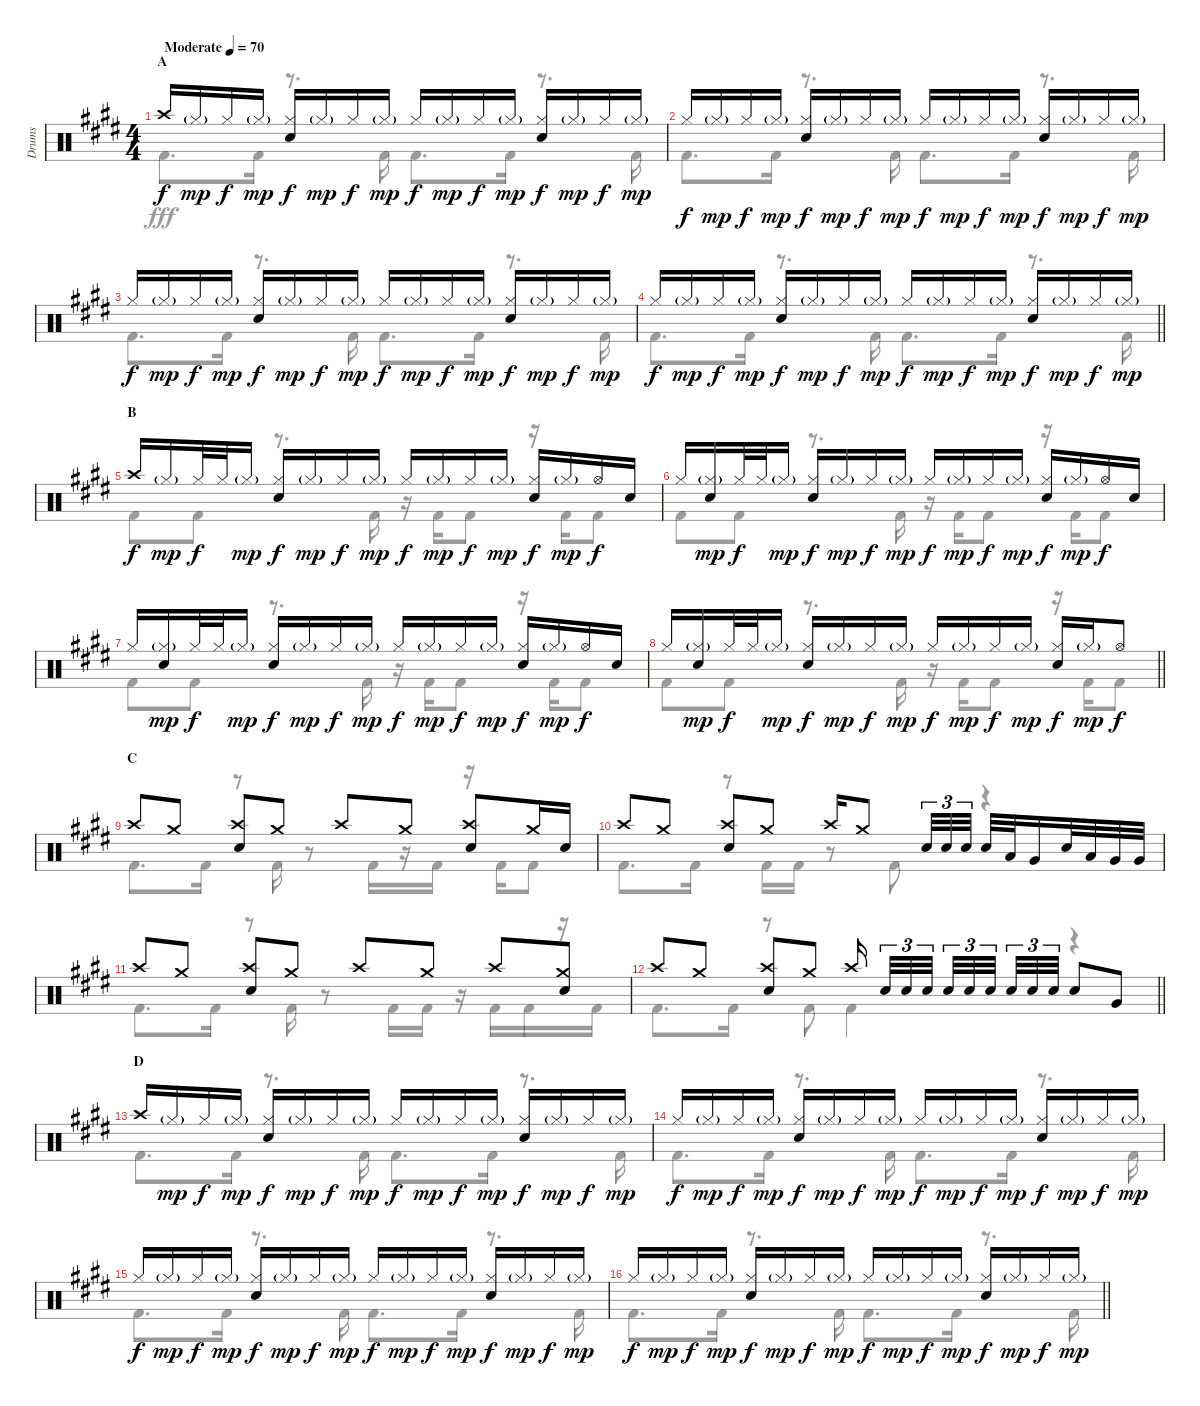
\track ("Drums" "Drums") {instrument percussion}
\staff {score}
\articulation defaults
\voice
\ts (4 4)
\section ("" "A")
\tempo (70 "Moderate")
\clef neutral
\ks e "Crash high (hit)".16{dy f} "Hi-Hat (closed)"{g}.16{dy mp} "Hi-Hat (closed)".16{dy f} "Hi-Hat (closed)"{g}.16{dy mp}
("Hi-Hat (closed)" "Snare (hit) 2").16{dy f} "Hi-Hat (closed)"{g}.16{dy mp} "Hi-Hat (closed)".16{dy f} "Hi-Hat (closed)"{g}.16{dy mp} "Hi-Hat (closed)".16{dy f} "Hi-Hat (closed)"{g}.16{dy mp} "Hi-Hat (closed)".16{dy f} "Hi-Hat (closed)"{g}.16{dy mp} ("Hi-Hat (closed)" "Snare (hit) 2").16{dy f} "Hi-Hat (closed)"{g}.16{dy mp} "Hi-Hat (closed)".16{dy f} "Hi-Hat (closed)"{g}.16{dy mp} |
"Hi-Hat (closed)".16{dy f} "Hi-Hat (closed)"{g}.16{dy mp} "Hi-Hat (closed)".16{dy f} "Hi-Hat (closed)"{g}.16{dy mp} ("Hi-Hat (closed)" "Snare (hit) 2").16{dy f} "Hi-Hat (closed)"{g}.16{dy mp} "Hi-Hat (closed)".16{dy f} "Hi-Hat (closed)"{g}.16{dy mp} "Hi-Hat (closed)".16{dy f} "Hi-Hat (closed)"{g}.16{dy mp} "Hi-Hat (closed)".16{dy f} "Hi-Hat (closed)"{g}.16{dy mp} ("Hi-Hat (closed)" "Snare (hit) 2").16{dy f} "Hi-Hat (closed)"{g}.16{dy mp} "Hi-Hat (closed)".16{dy f} "Hi-Hat (closed)"{g}.16{dy mp} |
"Hi-Hat (closed)".16{dy f} "Hi-Hat (closed)"{g}.16{dy mp} "Hi-Hat (closed)".16{dy f} "Hi-Hat (closed)"{g}.16{dy mp} ("Hi-Hat (closed)" "Snare (hit) 2").16{dy f} "Hi-Hat (closed)"{g}.16{dy mp} "Hi-Hat (closed)".16{dy f} "Hi-Hat (closed)"{g}.16{dy mp} "Hi-Hat (closed)".16{dy f} "Hi-Hat (closed)"{g}.16{dy mp} "Hi-Hat (closed)".16{dy f} "Hi-Hat (closed)"{g}.16{dy mp} ("Hi-Hat (closed)" "Snare (hit) 2").16{dy f} "Hi-Hat (closed)"{g}.16{dy mp} "Hi-Hat (closed)".16{dy f} "Hi-Hat (closed)"{g}.16{dy mp} |
\barLineRight lightlight "Hi-Hat (closed)".16{dy f} "Hi-Hat (closed)"{g}.16{dy mp} "Hi-Hat (closed)".16{dy f} "Hi-Hat (closed)"{g}.16{dy mp}
("Hi-Hat (closed)" "Snare (hit) 2").16{dy f} "Hi-Hat (closed)"{g}.16{dy mp} "Hi-Hat (closed)".16{dy f} "Hi-Hat (closed)"{g}.16{dy mp} "Hi-Hat (closed)".16{dy f} "Hi-Hat (closed)"{g}.16{dy mp} "Hi-Hat (closed)".16{dy f} "Hi-Hat (closed)"{g}.16{dy mp} ("Hi-Hat (closed)" "Snare (hit) 2").16{dy f} "Hi-Hat (closed)"{g}.16{dy mp} "Hi-Hat (closed)".16{dy f} "Hi-Hat (closed)"{g}.16{dy mp} |
\section ("" "B")
"Crash high (hit)".16{dy f} "Hi-Hat (closed)"{g}.16{dy mp} "Hi-Hat (closed)".32{dy f} "Hi-Hat (closed)".32 "Hi-Hat (closed)"{g}.16{dy mp} ("Hi-Hat (closed)" "Snare (hit) 2").16{dy f} "Hi-Hat (closed)"{g}.16{dy mp} "Hi-Hat (closed)".16{dy f} "Hi-Hat (closed)"{g}.16{dy mp} "Hi-Hat (closed)".16{dy f} "Hi-Hat (closed)"{g}.16{dy mp} "Hi-Hat (closed)".16{dy f} "Hi-Hat (closed)"{g}.16{dy mp} ("Hi-Hat (closed)" "Snare (hit) 2").16{dy f} "Hi-Hat (closed)"{g}.16{dy mp} "Hi-Hat (open)".16{dy f} "Snare (hit) 2".16 |
"Hi-Hat (closed)".16 ("Hi-Hat (closed)"{g} "Snare (hit) 2").16{dy mp} "Hi-Hat (closed)".32{dy f} "Hi-Hat (closed)".32 "Hi-Hat (closed)"{g}.16{dy mp} ("Hi-Hat (closed)" "Snare (hit) 2").16{dy f} "Hi-Hat (closed)"{g}.16{dy mp} "Hi-Hat (closed)".16{dy f} "Hi-Hat (closed)"{g}.16{dy mp} "Hi-Hat (closed)".16{dy f} "Hi-Hat (closed)"{g}.16{dy mp} "Hi-Hat (closed)".16{dy f} "Hi-Hat (closed)"{g}.16{dy mp} ("Hi-Hat (closed)" "Snare (hit) 2").16{dy f} "Hi-Hat (closed)"{g}.16{dy mp} "Hi-Hat (open)".16{dy f} "Snare (hit) 2".16 |
"Hi-Hat (closed)".16 ("Hi-Hat (closed)"{g} "Snare (hit) 2").16{dy mp} "Hi-Hat (closed)".32{dy f} "Hi-Hat (closed)".32 "Hi-Hat (closed)"{g}.16{dy mp} ("Hi-Hat (closed)" "Snare (hit) 2").16{dy f} "Hi-Hat (closed)"{g}.16{dy mp} "Hi-Hat (closed)".16{dy f} "Hi-Hat (closed)"{g}.16{dy mp} "Hi-Hat (closed)".16{dy f} "Hi-Hat (closed)"{g}.16{dy mp} "Hi-Hat (closed)".16{dy f} "Hi-Hat (closed)"{g}.16{dy mp} ("Hi-Hat (closed)" "Snare (hit) 2").16{dy f} "Hi-Hat (closed)"{g}.16{dy mp} "Hi-Hat (open)".16{dy f} "Snare (hit) 2".16 |
\barLineRight lightlight "Hi-Hat (closed)".16
("Hi-Hat (closed)"{g} "Snare (hit) 2").16{dy mp} "Hi-Hat (closed)".32{dy f} "Hi-Hat (closed)".32 "Hi-Hat (closed)"{g}.16{dy mp} ("Hi-Hat (closed)" "Snare (hit) 2").16{dy f} "Hi-Hat (closed)"{g}.16{dy mp} "Hi-Hat (closed)".16{dy f} "Hi-Hat (closed)"{g}.16{dy mp} "Hi-Hat (closed)".16{dy f} "Hi-Hat (closed)"{g}.16{dy mp} "Hi-Hat (closed)".16{dy f} "Hi-Hat (closed)"{g}.16{dy mp} ("Hi-Hat (closed)" "Snare (hit) 2").16{dy f} "Hi-Hat (closed)"{g}.16{dy mp} "Hi-Hat (open)".8{dy f} |
\section ("" "C")
"Crash high (hit)".8 "Crash medium (hit)".8 ("Crash high (hit)" "Snare (hit) 2").8 "Crash medium (hit)".8 "Crash high (hit)".8 "Crash medium (hit)".8 ("Crash high (hit)" "Snare (hit) 2").8 "Crash medium (hit)".16 "Snare (hit) 2".16 |
"Crash high (hit)".8 "Crash medium (hit)".8 ("Crash high (hit)" "Snare (hit) 2").8 "Crash medium (hit)".8 "Crash high (hit)".16 "Crash medium (hit)".8 "Snare (hit) 2".32{tu (3 2)} "Snare (hit) 2".32{tu (3 2)} "Snare (hit) 2".32{tu (3 2)} "Snare (hit) 2".32 "Low Tom (hit)".32 "Very Low Tom (hit)".16 "Snare (hit) 2".32 "Low Tom (hit)".32 "Very Low Tom (hit)".32 "Very Low Tom (hit)".32 |
"Crash high (hit)".8 "Crash medium (hit)".8 ("Crash high (hit)" "Snare (hit) 2").8 "Crash medium (hit)".8 "Crash high (hit)".8 "Crash medium (hit)".8 "Crash high (hit)".8 ("Crash medium (hit)" "Snare (hit) 2").8 |
\barLineRight lightlight "Crash high (hit)".8 "Crash medium (hit)".8
("Crash high (hit)" "Snare (hit) 2").8 "Crash medium (hit)".8 "Crash high (hit)".16{beam splitsecondary} "Snare (hit) 2".32{tu (3 2)} "Snare (hit) 2".32{tu (3 2)} "Snare (hit) 2".32{tu (3 2) beam splitsecondary} "Snare (hit) 2".32{tu (3 2)} "Snare (hit) 2".32{tu (3 2)} "Snare (hit) 2".32{tu (3 2) beam splitsecondary} "Snare (hit) 2".32{tu (3 2)} "Snare (hit) 2".32{tu (3 2)} "Snare (hit) 2".32{tu (3 2)} "Snare (hit) 2".8 "Very Low Tom (hit)".8 |
\section ("" "D")
"Crash high (hit)".16 "Hi-Hat (closed)"{g}.16{dy mp} "Hi-Hat (closed)".16{dy f} "Hi-Hat (closed)"{g}.16{dy mp} ("Hi-Hat (closed)" "Snare (hit) 2").16{dy f} "Hi-Hat (closed)"{g}.16{dy mp} "Hi-Hat (closed)".16{dy f} "Hi-Hat (closed)"{g}.16{dy mp} "Hi-Hat (closed)".16{dy f} "Hi-Hat (closed)"{g}.16{dy mp} "Hi-Hat (closed)".16{dy f} "Hi-Hat (closed)"{g}.16{dy mp} ("Hi-Hat (closed)" "Snare (hit) 2").16{dy f} "Hi-Hat (closed)"{g}.16{dy mp} "Hi-Hat (closed)".16{dy f} "Hi-Hat (closed)"{g}.16{dy mp} |
"Hi-Hat (closed)".16{dy f} "Hi-Hat (closed)"{g}.16{dy mp} "Hi-Hat (closed)".16{dy f} "Hi-Hat (closed)"{g}.16{dy mp} ("Hi-Hat (closed)" "Snare (hit) 2").16{dy f} "Hi-Hat (closed)"{g}.16{dy mp} "Hi-Hat (closed)".16{dy f} "Hi-Hat (closed)"{g}.16{dy mp} "Hi-Hat (closed)".16{dy f} "Hi-Hat (closed)"{g}.16{dy mp} "Hi-Hat (closed)".16{dy f} "Hi-Hat (closed)"{g}.16{dy mp} ("Hi-Hat (closed)" "Snare (hit) 2").16{dy f} "Hi-Hat (closed)"{g}.16{dy mp} "Hi-Hat (closed)".16{dy f} "Hi-Hat (closed)"{g}.16{dy mp} |
"Hi-Hat (closed)".16{dy f} "Hi-Hat (closed)"{g}.16{dy mp} "Hi-Hat (closed)".16{dy f} "Hi-Hat (closed)"{g}.16{dy mp} ("Hi-Hat (closed)" "Snare (hit) 2").16{dy f} "Hi-Hat (closed)"{g}.16{dy mp} "Hi-Hat (closed)".16{dy f} "Hi-Hat (closed)"{g}.16{dy mp} "Hi-Hat (closed)".16{dy f} "Hi-Hat (closed)"{g}.16{dy mp} "Hi-Hat (closed)".16{dy f} "Hi-Hat (closed)"{g}.16{dy mp} ("Hi-Hat (closed)" "Snare (hit) 2").16{dy f} "Hi-Hat (closed)"{g}.16{dy mp} "Hi-Hat (closed)".16{dy f} "Hi-Hat (closed)"{g}.16{dy mp} |
\barLineRight lightlight "Hi-Hat (closed)".16{dy f} "Hi-Hat (closed)"{g}.16{dy mp} "Hi-Hat (closed)".16{dy f} "Hi-Hat (closed)"{g}.16{dy mp}
("Hi-Hat (closed)" "Snare (hit) 2").16{dy f} "Hi-Hat (closed)"{g}.16{dy mp} "Hi-Hat (closed)".16{dy f} "Hi-Hat (closed)"{g}.16{dy mp} "Hi-Hat (closed)".16{dy f} "Hi-Hat (closed)"{g}.16{dy mp} "Hi-Hat (closed)".16{dy f} "Hi-Hat (closed)"{g}.16{dy mp} ("Hi-Hat (closed)" "Snare (hit) 2").16{dy f} "Hi-Hat (closed)"{g}.16{dy mp} "Hi-Hat (closed)".16{dy f} "Hi-Hat (closed)"{g}.16{dy mp}
\voice
\clef neutral
\ottava regular
\simile none
\ks e "Kick (hit) 2".8{d dy fff} "Kick (hit) 2".16
r.8{d} "Kick (hit) 2".16 "Kick (hit) 2".8{d} "Kick (hit) 2".16 r.8{d} "Kick (hit) 2".16 |
"Kick (hit) 2".8{d} "Kick (hit) 2".16 r.8{d} "Kick (hit) 2".16 "Kick (hit) 2".8{d} "Kick (hit) 2".16 r.8{d} "Kick (hit) 2".16 |
"Kick (hit) 2".8{d} "Kick (hit) 2".16 r.8{d} "Kick (hit) 2".16 "Kick (hit) 2".8{d} "Kick (hit) 2".16 r.8{d} "Kick (hit) 2".16 |
\barLineRight lightlight "Kick (hit) 2".8{d} "Kick (hit) 2".16
r.8{d} "Kick (hit) 2".16 "Kick (hit) 2".8{d} "Kick (hit) 2".16 r.8{d} "Kick (hit) 2".16 |
"Kick (hit) 2".8 "Kick (hit) 2".8 r.8{d} "Kick (hit) 2".16 r.16 "Kick (hit) 2".16 "Kick (hit) 2".8 r.16 "Kick (hit) 2".16 "Kick (hit) 2".8 |
"Kick (hit) 2".8 "Kick (hit) 2".8 r.8{d} "Kick (hit) 2".16 r.16 "Kick (hit) 2".16 "Kick (hit) 2".8 r.16 "Kick (hit) 2".16 "Kick (hit) 2".8 |
"Kick (hit) 2".8 "Kick (hit) 2".8 r.8{d} "Kick (hit) 2".16 r.16 "Kick (hit) 2".16 "Kick (hit) 2".8 r.16 "Kick (hit) 2".16 "Kick (hit) 2".8 |
\barLineRight lightlight "Kick (hit) 2".8 "Kick (hit) 2".8
r.8{d} "Kick (hit) 2".16 r.16 "Kick (hit) 2".16 "Kick (hit) 2".8 r.16 "Kick (hit) 2".16 "Kick (hit) 2".8 |
"Kick (hit) 2".8{d} "Kick (hit) 2".16 r.8 "Kick (hit) 2".16 r.8 "Kick (hit) 2".16 r.16 "Kick (hit) 2".16 r.16 "Kick (hit) 2".16 "Kick (hit) 2".8 |
"Kick (hit) 2".8{d} "Kick (hit) 2".16 r.8 "Kick (hit) 2".16 "Kick (hit) 2".16 r.8 "Kick (hit) 2".8 r.4 |
"Kick (hit) 2".8{d} "Kick (hit) 2".16 r.8 "Kick (hit) 2".16 r.8 "Kick (hit) 2".16 "Kick (hit) 2".16 r.16 "Kick (hit) 2".16 "Kick (hit) 2".16 r.16 "Kick (hit) 2".16 |
\barLineRight lightlight "Kick (hit) 2".8{d} "Kick (hit) 2".16
r.8 "Kick (hit) 2".8 "Kick (hit) 2".4 r.4 |
"Kick (hit) 2".8{d} "Kick (hit) 2".16 r.8{d} "Kick (hit) 2".16 "Kick (hit) 2".8{d} "Kick (hit) 2".16 r.8{d} "Kick (hit) 2".16 |
"Kick (hit) 2".8{d} "Kick (hit) 2".16 r.8{d} "Kick (hit) 2".16 "Kick (hit) 2".8{d} "Kick (hit) 2".16 r.8{d} "Kick (hit) 2".16 |
"Kick (hit) 2".8{d} "Kick (hit) 2".16 r.8{d} "Kick (hit) 2".16 "Kick (hit) 2".8{d} "Kick (hit) 2".16 r.8{d} "Kick (hit) 2".16 |
\barLineRight lightlight "Kick (hit) 2".8{d} "Kick (hit) 2".16
r.8{d} "Kick (hit) 2".16 "Kick (hit) 2".8{d} "Kick (hit) 2".16 r.8{d} "Kick (hit) 2".16
